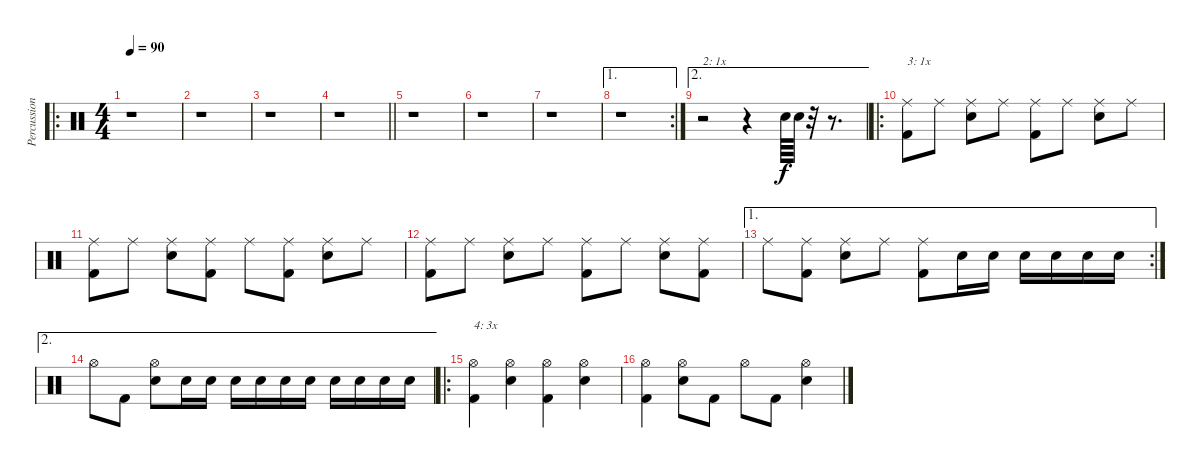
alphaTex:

\track ("Percussion" "Percussion") {instrument percussion}
\staff {score}
\articulation defaults
\ro
\ts (4 4)
\tempo 90
\clef neutral
\ks c
r.1{dy f} |
r.1 |
r.1 |
\barLineRight lightlight
r.1 |
r.1 |
r.1 |
r.1 |
\ae 1
\rc 2
r.1 |
\ae 2
r.2{txt "2: 1x"} r.4 "Electric Snare (hit)".64 "Electric Snare (hit)".64 r.32 r.8{d} |
\ro
("Kick (hit) 2" "Ride (middle)").8{txt "3: 1x"} "Ride (middle)".8 ("Electric Snare (hit)" "Ride (middle)").8 "Ride (middle)".8 ("Kick (hit) 2" "Ride (middle)").8 "Ride (middle)".8 ("Electric Snare (hit)" "Ride (middle)").8 "Ride (middle)".8 |
("Kick (hit) 2" "Ride (middle)").8 "Ride (middle)".8 ("Electric Snare (hit)" "Ride (middle)").8 ("Kick (hit) 2" "Ride (middle)").8 "Ride (middle)".8 ("Kick (hit) 2" "Ride (middle)").8 ("Electric Snare (hit)" "Ride (middle)").8 "Ride (middle)".8 |
("Kick (hit) 2" "Ride (middle)").8 "Ride (middle)".8 ("Electric Snare (hit)" "Ride (middle)").8 "Ride (middle)".8 ("Kick (hit) 2" "Ride (middle)").8 "Ride (middle)".8 ("Electric Snare (hit)" "Ride (middle)").8 ("Kick (hit) 2" "Ride (middle)").8 |
\ae 1
\rc 2 "Ride (middle)".8
("Kick (hit) 2" "Ride (middle)").8 ("Electric Snare (hit)" "Ride (middle)").8 "Ride (middle)".8 ("Kick (hit) 2" "Ride (middle)").8 "Electric Snare (hit)".16 "Electric Snare (hit)".16 "Electric Snare (hit)".16 "Electric Snare (hit)".16 "Electric Snare (hit)".16 "Electric Snare (hit)".16 |
\ae 2 "Hi-Hat (open)".8 "Kick (hit) 2".8
("Electric Snare (hit)" "Hi-Hat (open)").8 "Electric Snare (hit)".16 "Electric Snare (hit)".16 "Electric Snare (hit)".16 "Electric Snare (hit)".16 "Electric Snare (hit)".16 "Electric Snare (hit)".16 "Electric Snare (hit)".16 "Electric Snare (hit)".16 "Electric Snare (hit)".16 "Electric Snare (hit)".16 |
\ro
("Kick (hit) 2" "Hi-Hat (open)").4{txt "4: 3x"} ("Electric Snare (hit)" "Hi-Hat (open)").4 ("Kick (hit) 2" "Hi-Hat (open)").4 ("Electric Snare (hit)" "Hi-Hat (open)").4 |
("Kick (hit) 2" "Hi-Hat (open)").4 ("Electric Snare (hit)" "Hi-Hat (open)").8 "Kick (hit) 2".8 "Hi-Hat (open)".8 "Kick (hit) 2".8 ("Electric Snare (hit)" "Hi-Hat (open)").4
